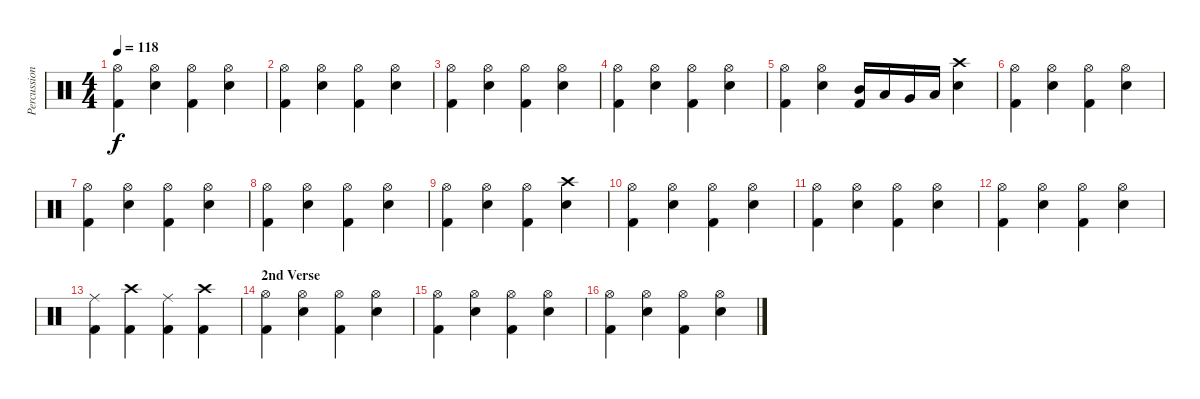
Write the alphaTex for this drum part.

\track ("Percussion" "Percussion") {instrument percussion}
\staff {score}
\articulation defaults
\ts (4 4)
\tempo 118
\clef neutral
\ks c
("Hi-Hat (open)" "Kick (hit) 2").4{dy f} ("Hi-Hat (open)" "Snare (hit) 2").4 ("Hi-Hat (open)" "Kick (hit) 2").4 ("Hi-Hat (open)" "Snare (hit) 2").4 |
("Hi-Hat (open)" "Kick (hit) 2").4 ("Hi-Hat (open)" "Snare (hit) 2").4 ("Hi-Hat (open)" "Kick (hit) 2").4 ("Hi-Hat (open)" "Snare (hit) 2").4 |
("Hi-Hat (open)" "Kick (hit) 2").4 ("Hi-Hat (open)" "Snare (hit) 2").4 ("Hi-Hat (open)" "Kick (hit) 2").4 ("Hi-Hat (open)" "Snare (hit) 2").4 |
("Hi-Hat (open)" "Kick (hit) 2").4 ("Hi-Hat (open)" "Snare (hit) 2").4 ("Hi-Hat (open)" "Kick (hit) 2").4 ("Hi-Hat (open)" "Snare (hit) 2").4 |
("Hi-Hat (open)" "Kick (hit) 2").4 ("Hi-Hat (open)" "Snare (hit) 2").4 ("Mid Tom (hit)" "Kick (hit) 2").16 "Low Tom (hit)".16 "Very Low Tom (hit)".16 "Low Floor Tom (hit)".16 ("Crash high (hit)" "Snare (hit) 2").4 |
("Hi-Hat (open)" "Kick (hit) 2").4 ("Hi-Hat (open)" "Snare (hit) 2").4 ("Hi-Hat (open)" "Kick (hit) 2").4 ("Hi-Hat (open)" "Snare (hit) 2").4 |
("Hi-Hat (open)" "Kick (hit) 2").4 ("Hi-Hat (open)" "Snare (hit) 2").4 ("Hi-Hat (open)" "Kick (hit) 2").4 ("Hi-Hat (open)" "Snare (hit) 2").4 |
("Hi-Hat (open)" "Kick (hit) 2").4 ("Hi-Hat (open)" "Snare (hit) 2").4 ("Hi-Hat (open)" "Kick (hit) 2").4 ("Hi-Hat (open)" "Snare (hit) 2").4 |
("Hi-Hat (open)" "Kick (hit) 2").4 ("Hi-Hat (open)" "Snare (hit) 2").4 ("Hi-Hat (open)" "Kick (hit) 2").4 ("Crash high (hit)" "Snare (hit) 2").4 |
("Hi-Hat (open)" "Kick (hit) 2").4 ("Hi-Hat (open)" "Snare (hit) 2").4 ("Hi-Hat (open)" "Kick (hit) 2").4 ("Hi-Hat (open)" "Snare (hit) 2").4 |
("Hi-Hat (open)" "Kick (hit) 2").4 ("Hi-Hat (open)" "Snare (hit) 2").4 ("Hi-Hat (open)" "Kick (hit) 2").4 ("Hi-Hat (open)" "Snare (hit) 2").4 |
("Hi-Hat (open)" "Kick (hit) 2").4 ("Hi-Hat (open)" "Snare (hit) 2").4 ("Hi-Hat (open)" "Kick (hit) 2").4 ("Hi-Hat (open)" "Snare (hit) 2").4 |
("Ride (middle)" "Kick (hit) 2").4 ("Crash high (hit)" "Kick (hit) 2").4 ("Ride (middle)" "Kick (hit) 2").4 ("Crash high (hit)" "Kick (hit) 2").4 |
\section ("" "2nd Verse")
("Hi-Hat (open)" "Kick (hit) 2").4 ("Hi-Hat (open)" "Snare (hit) 2").4 ("Hi-Hat (open)" "Kick (hit) 2").4 ("Hi-Hat (open)" "Snare (hit) 2").4 |
("Hi-Hat (open)" "Kick (hit) 2").4 ("Hi-Hat (open)" "Snare (hit) 2").4 ("Hi-Hat (open)" "Kick (hit) 2").4 ("Hi-Hat (open)" "Snare (hit) 2").4 |
("Hi-Hat (open)" "Kick (hit) 2").4 ("Hi-Hat (open)" "Snare (hit) 2").4 ("Hi-Hat (open)" "Kick (hit) 2").4 ("Hi-Hat (open)" "Snare (hit) 2").4
